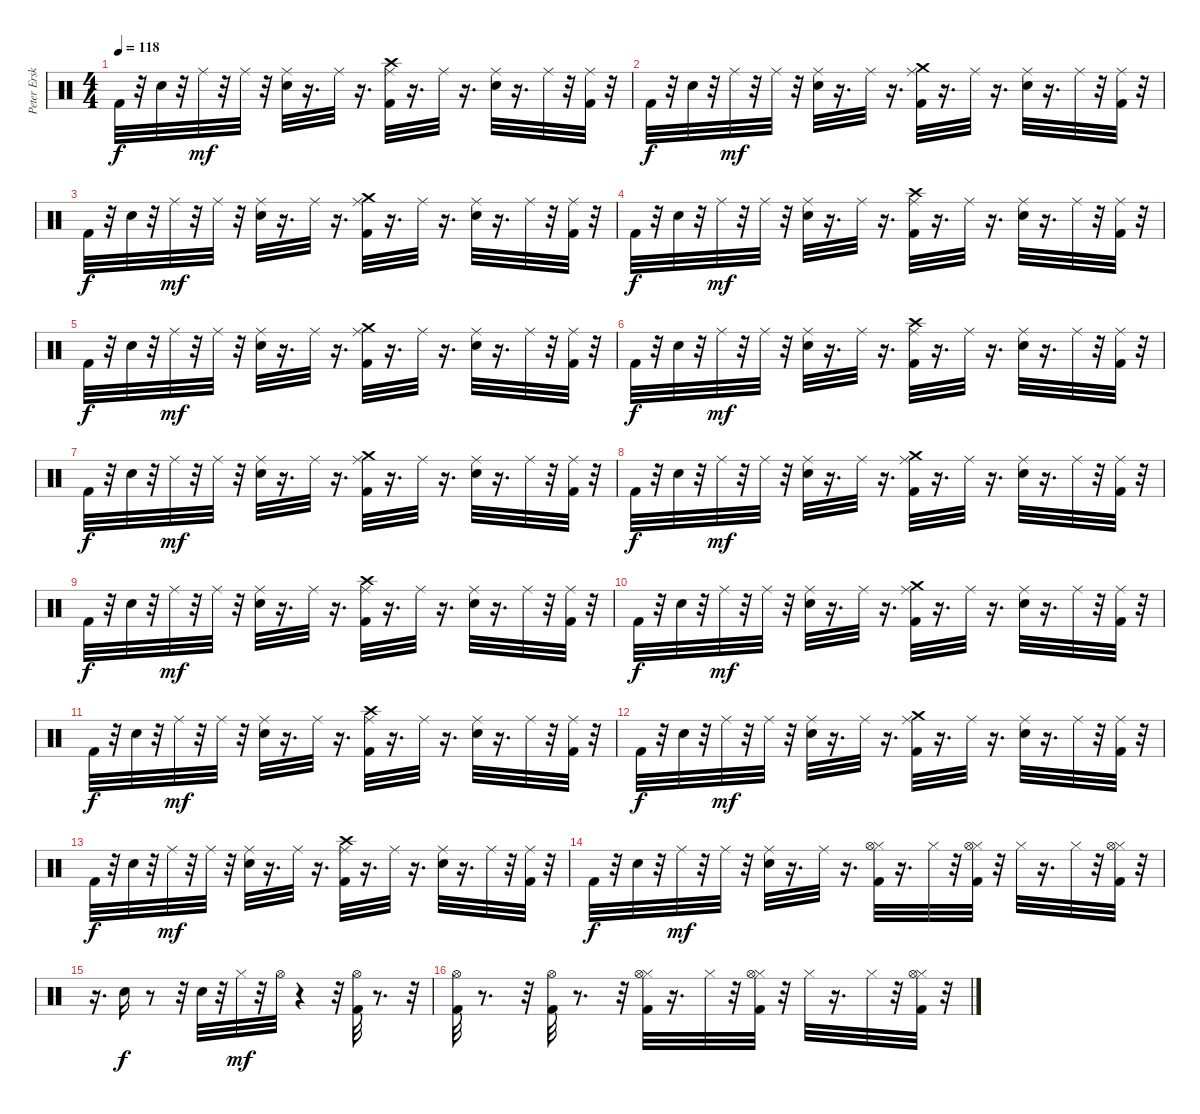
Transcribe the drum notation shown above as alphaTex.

\track ("Peter Erskine" "Peter Ersk") {instrument percussion}
\staff {score}
\articulation defaults
\ts (4 4)
\tempo 118
\clef neutral
\ks c "Kick (hit) 2".32{dy f}
r.32 "Electric Snare (hit)".32 r.32 "Ride (middle)".32{dy mf} r.32 "Ride (middle)".32 r.32 ("Electric Snare (hit)" "Ride (middle)").32 r.16{d} "Ride (middle)".32 r.16{d} ("Crash high (hit)" "Kick (hit) 2" "Ride (middle)").32 r.16{d} "Ride (middle)".32 r.16{d} ("Electric Snare (hit)" "Ride (middle)").32 r.16{d} "Ride (middle)".32 r.32 ("Kick (hit) 2" "Ride (middle)").32 r.32 |
"Kick (hit) 2".32{dy f} r.32 "Electric Snare (hit)".32 r.32 "Ride (middle)".32{dy mf} r.32 "Ride (middle)".32 r.32 ("Electric Snare (hit)" "Ride (middle)").32 r.16{d} "Ride (middle)".32 r.16{d} ("Crash medium (hit)" "Kick (hit) 2" "Ride (middle)").32 r.16{d} "Ride (middle)".32 r.16{d} ("Electric Snare (hit)" "Ride (middle)").32 r.16{d} "Ride (middle)".32 r.32 ("Kick (hit) 2" "Ride (middle)").32 r.32 |
"Kick (hit) 2".32{dy f} r.32 "Electric Snare (hit)".32 r.32 "Ride (middle)".32{dy mf} r.32 "Ride (middle)".32 r.32 ("Electric Snare (hit)" "Ride (middle)").32 r.16{d} "Ride (middle)".32 r.16{d} ("Crash medium (hit)" "Kick (hit) 2" "Ride (middle)").32 r.16{d} "Ride (middle)".32 r.16{d} ("Electric Snare (hit)" "Ride (middle)").32 r.16{d} "Ride (middle)".32 r.32 ("Kick (hit) 2" "Ride (middle)").32 r.32 |
"Kick (hit) 2".32{dy f} r.32 "Electric Snare (hit)".32 r.32 "Ride (middle)".32{dy mf} r.32 "Ride (middle)".32 r.32 ("Electric Snare (hit)" "Ride (middle)").32 r.16{d} "Ride (middle)".32 r.16{d} ("Crash high (hit)" "Kick (hit) 2" "Ride (middle)").32 r.16{d} "Ride (middle)".32 r.16{d} ("Electric Snare (hit)" "Ride (middle)").32 r.16{d} "Ride (middle)".32 r.32 ("Kick (hit) 2" "Ride (middle)").32 r.32 |
"Kick (hit) 2".32{dy f} r.32 "Electric Snare (hit)".32 r.32 "Ride (middle)".32{dy mf} r.32 "Ride (middle)".32 r.32 ("Electric Snare (hit)" "Ride (middle)").32 r.16{d} "Ride (middle)".32 r.16{d} ("Crash medium (hit)" "Kick (hit) 2" "Ride (middle)").32 r.16{d} "Ride (middle)".32 r.16{d} ("Electric Snare (hit)" "Ride (middle)").32 r.16{d} "Ride (middle)".32 r.32 ("Kick (hit) 2" "Ride (middle)").32 r.32 |
"Kick (hit) 2".32{dy f} r.32 "Electric Snare (hit)".32 r.32 "Ride (middle)".32{dy mf} r.32 "Ride (middle)".32 r.32 ("Electric Snare (hit)" "Ride (middle)").32 r.16{d} "Ride (middle)".32 r.16{d} ("Crash high (hit)" "Kick (hit) 2" "Ride (middle)").32 r.16{d} "Ride (middle)".32 r.16{d} ("Electric Snare (hit)" "Ride (middle)").32 r.16{d} "Ride (middle)".32 r.32 ("Kick (hit) 2" "Ride (middle)").32 r.32 |
"Kick (hit) 2".32{dy f} r.32 "Electric Snare (hit)".32 r.32 "Ride (middle)".32{dy mf} r.32 "Ride (middle)".32 r.32 ("Electric Snare (hit)" "Ride (middle)").32 r.16{d} "Ride (middle)".32 r.16{d} ("Crash medium (hit)" "Kick (hit) 2" "Ride (middle)").32 r.16{d} "Ride (middle)".32 r.16{d} ("Electric Snare (hit)" "Ride (middle)").32 r.16{d} "Ride (middle)".32 r.32 ("Kick (hit) 2" "Ride (middle)").32 r.32 |
"Kick (hit) 2".32{dy f} r.32 "Electric Snare (hit)".32 r.32 "Ride (middle)".32{dy mf} r.32 "Ride (middle)".32 r.32 ("Electric Snare (hit)" "Ride (middle)").32 r.16{d} "Ride (middle)".32 r.16{d} ("Crash medium (hit)" "Kick (hit) 2" "Ride (middle)").32 r.16{d} "Ride (middle)".32 r.16{d} ("Electric Snare (hit)" "Ride (middle)").32 r.16{d} "Ride (middle)".32 r.32 ("Kick (hit) 2" "Ride (middle)").32 r.32 |
"Kick (hit) 2".32{dy f} r.32 "Electric Snare (hit)".32 r.32 "Ride (middle)".32{dy mf} r.32 "Ride (middle)".32 r.32 ("Electric Snare (hit)" "Ride (middle)").32 r.16{d} "Ride (middle)".32 r.16{d} ("Crash high (hit)" "Kick (hit) 2" "Ride (middle)").32 r.16{d} "Ride (middle)".32 r.16{d} ("Electric Snare (hit)" "Ride (middle)").32 r.16{d} "Ride (middle)".32 r.32 ("Kick (hit) 2" "Ride (middle)").32 r.32 |
"Kick (hit) 2".32{dy f} r.32 "Electric Snare (hit)".32 r.32 "Ride (middle)".32{dy mf} r.32 "Ride (middle)".32 r.32 ("Electric Snare (hit)" "Ride (middle)").32 r.16{d} "Ride (middle)".32 r.16{d} ("Crash medium (hit)" "Kick (hit) 2" "Ride (middle)").32 r.16{d} "Ride (middle)".32 r.16{d} ("Electric Snare (hit)" "Ride (middle)").32 r.16{d} "Ride (middle)".32 r.32 ("Kick (hit) 2" "Ride (middle)").32 r.32 |
"Kick (hit) 2".32{dy f} r.32 "Electric Snare (hit)".32 r.32 "Ride (middle)".32{dy mf} r.32 "Ride (middle)".32 r.32 ("Electric Snare (hit)" "Ride (middle)").32 r.16{d} "Ride (middle)".32 r.16{d} ("Crash high (hit)" "Kick (hit) 2" "Ride (middle)").32 r.16{d} "Ride (middle)".32 r.16{d} ("Electric Snare (hit)" "Ride (middle)").32 r.16{d} "Ride (middle)".32 r.32 ("Kick (hit) 2" "Ride (middle)").32 r.32 |
"Kick (hit) 2".32{dy f} r.32 "Electric Snare (hit)".32 r.32 "Ride (middle)".32{dy mf} r.32 "Ride (middle)".32 r.32 ("Electric Snare (hit)" "Ride (middle)").32 r.16{d} "Ride (middle)".32 r.16{d} ("Crash medium (hit)" "Kick (hit) 2" "Ride (middle)").32 r.16{d} "Ride (middle)".32 r.16{d} ("Electric Snare (hit)" "Ride (middle)").32 r.16{d} "Ride (middle)".32 r.32 ("Kick (hit) 2" "Ride (middle)").32 r.32 |
"Kick (hit) 2".32{dy f} r.32 "Electric Snare (hit)".32 r.32 "Ride (middle)".32{dy mf} r.32 "Ride (middle)".32 r.32 ("Electric Snare (hit)" "Ride (middle)").32 r.16{d} "Ride (middle)".32 r.16{d} ("Crash high (hit)" "Kick (hit) 2" "Ride (middle)").32 r.16{d} "Ride (middle)".32 r.16{d} ("Electric Snare (hit)" "Ride (middle)").32 r.16{d} "Ride (middle)".32 r.32 ("Kick (hit) 2" "Ride (middle)").32 r.32 |
"Kick (hit) 2".32{dy f} r.32 "Electric Snare (hit)".32 r.32 "Ride (middle)".32{dy mf} r.32 "Ride (middle)".32 r.32 ("Electric Snare (hit)" "Ride (middle)").32 r.16{d} "Ride (middle)".32 r.16{d} ("Kick (hit) 2" "Hi-Hat (closed)" "Hi-Hat (open)").32 r.16{d} "Hi-Hat (closed)".32 r.32 ("Kick (hit) 2" "Hi-Hat (closed)" "Hi-Hat (open)").32 r.32 "Hi-Hat (closed)".32 r.16{d} "Hi-Hat (closed)".32 r.32 ("Kick (hit) 2" "Hi-Hat (closed)" "Hi-Hat (open)").32 r.32 |
r.16{d} "Electric Snare (hit)".16{dy f} r.8 r.32 "Electric Snare (hit)".32 r.32 "Hi-Hat (closed)".32{dy mf} r.32 "Hi-Hat (open)".32 r.4 r.32 ("Kick (hit) 2" "Hi-Hat (open)").32 r.8{d} r.32 |
("Kick (hit) 2" "Hi-Hat (open)").32 r.8{d} r.32 ("Kick (hit) 2" "Hi-Hat (open)").32 r.8{d} r.32 ("Kick (hit) 2" "Hi-Hat (closed)" "Hi-Hat (open)").32 r.16{d} "Hi-Hat (closed)".32 r.32 ("Kick (hit) 2" "Hi-Hat (closed)" "Hi-Hat (open)").32 r.32 "Hi-Hat (closed)".32 r.16{d} "Hi-Hat (closed)".32 r.32 ("Kick (hit) 2" "Hi-Hat (closed)" "Hi-Hat (open)").32 r.32
